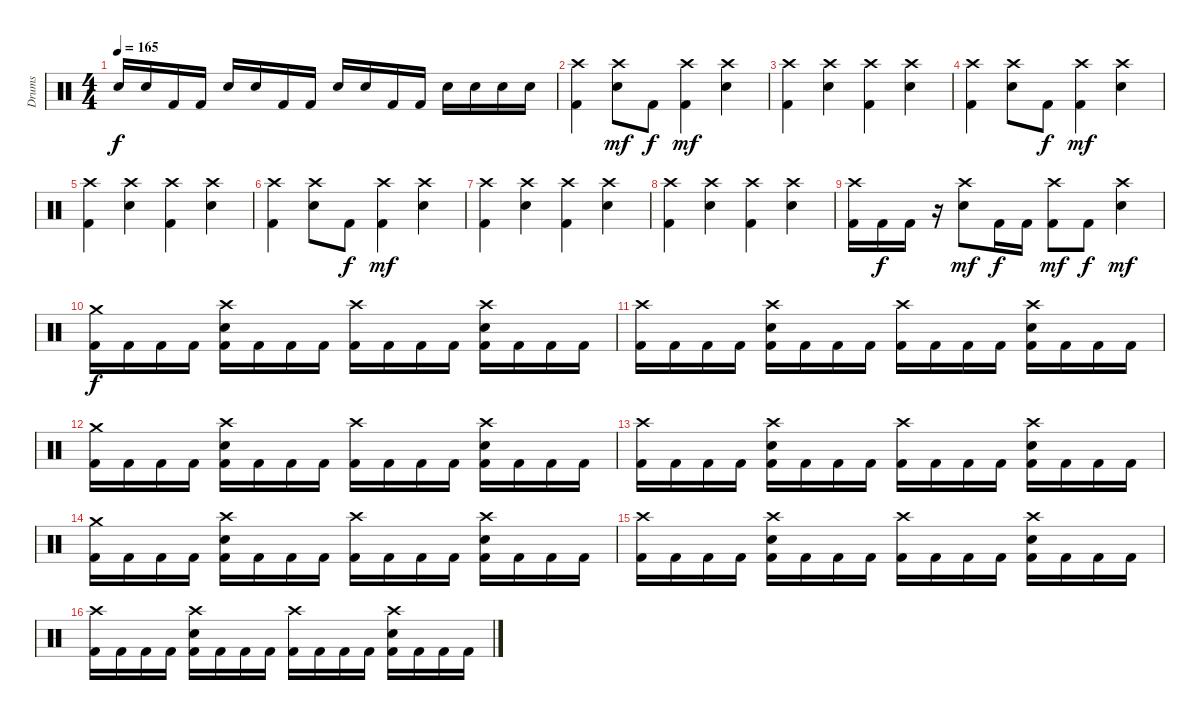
\track ("Drums" "Drums") {instrument percussion}
\staff {score}
\articulation defaults
\ts (4 4)
\tempo 165
\clef neutral
\ks c "Electric Snare (hit)".16{dy f} "Electric Snare (hit)".16 "Kick (hit) 2".16 "Kick (hit) 2".16 "Electric Snare (hit)".16 "Electric Snare (hit)".16 "Kick (hit) 2".16 "Kick (hit) 2".16 "Electric Snare (hit)".16 "Electric Snare (hit)".16 "Kick (hit) 2".16 "Kick (hit) 2".16 "Electric Snare (hit)".16 "Electric Snare (hit)".16 "Electric Snare (hit)".16 "Electric Snare (hit)".16
|
("Crash high (hit)" "Kick (hit) 2").4 ("Crash high (hit)" "Electric Snare (hit)").8{dy mf} "Kick (hit) 2".8{dy f} ("Crash high (hit)" "Kick (hit) 2").4{dy mf} ("Crash high (hit)" "Electric Snare (hit)").4 |
("Crash high (hit)" "Kick (hit) 2").4 ("Crash high (hit)" "Electric Snare (hit)").4 ("Crash high (hit)" "Kick (hit) 2").4 ("Crash high (hit)" "Electric Snare (hit)").4 |
("Crash high (hit)" "Kick (hit) 2").4 ("Crash high (hit)" "Electric Snare (hit)").8 "Kick (hit) 2".8{dy f} ("Crash high (hit)" "Kick (hit) 2").4{dy mf} ("Crash high (hit)" "Electric Snare (hit)").4 |
("Crash high (hit)" "Kick (hit) 2").4 ("Crash high (hit)" "Electric Snare (hit)").4 ("Crash high (hit)" "Kick (hit) 2").4 ("Crash high (hit)" "Electric Snare (hit)").4 |
("Crash high (hit)" "Kick (hit) 2").4 ("Crash high (hit)" "Electric Snare (hit)").8 "Kick (hit) 2".8{dy f} ("Crash high (hit)" "Kick (hit) 2").4{dy mf} ("Crash high (hit)" "Electric Snare (hit)").4 |
("Crash high (hit)" "Kick (hit) 2").4 ("Crash high (hit)" "Electric Snare (hit)").4 ("Crash high (hit)" "Kick (hit) 2").4 ("Crash high (hit)" "Electric Snare (hit)").4 |
("Crash high (hit)" "Kick (hit) 2").4 ("Crash high (hit)" "Electric Snare (hit)").4 ("Crash high (hit)" "Kick (hit) 2").4 ("Crash high (hit)" "Electric Snare (hit)").4 |
("Crash high (hit)" "Kick (hit) 2").16 "Kick (hit) 2".16{dy f} "Kick (hit) 2".16 r.16 ("Crash high (hit)" "Electric Snare (hit)").8{dy mf} "Kick (hit) 2".16{dy f} "Kick (hit) 2".16 ("Crash high (hit)" "Kick (hit) 2").8{dy mf} "Kick (hit) 2".8{dy f} ("Crash high (hit)" "Electric Snare (hit)").4{dy mf} |
("Crash medium (hit)" "Kick (hit) 2").16{dy f} "Kick (hit) 2".16 "Kick (hit) 2".16 "Kick (hit) 2".16 ("Crash high (hit)" "Electric Snare (hit)" "Kick (hit) 2").16 "Kick (hit) 2".16 "Kick (hit) 2".16 "Kick (hit) 2".16 ("Crash high (hit)" "Kick (hit) 2").16 "Kick (hit) 2".16 "Kick (hit) 2".16 "Kick (hit) 2".16 ("Crash high (hit)" "Electric Snare (hit)" "Kick (hit) 2").16 "Kick (hit) 2".16 "Kick (hit) 2".16 "Kick (hit) 2".16 |
("Crash high (hit)" "Kick (hit) 2").16 "Kick (hit) 2".16 "Kick (hit) 2".16 "Kick (hit) 2".16 ("Crash high (hit)" "Electric Snare (hit)" "Kick (hit) 2").16 "Kick (hit) 2".16 "Kick (hit) 2".16 "Kick (hit) 2".16 ("Crash high (hit)" "Kick (hit) 2").16 "Kick (hit) 2".16 "Kick (hit) 2".16 "Kick (hit) 2".16 ("Crash high (hit)" "Electric Snare (hit)" "Kick (hit) 2").16 "Kick (hit) 2".16 "Kick (hit) 2".16 "Kick (hit) 2".16 |
("Crash medium (hit)" "Kick (hit) 2").16 "Kick (hit) 2".16 "Kick (hit) 2".16 "Kick (hit) 2".16 ("Crash high (hit)" "Electric Snare (hit)" "Kick (hit) 2").16 "Kick (hit) 2".16 "Kick (hit) 2".16 "Kick (hit) 2".16 ("Crash high (hit)" "Kick (hit) 2").16 "Kick (hit) 2".16 "Kick (hit) 2".16 "Kick (hit) 2".16 ("Crash high (hit)" "Electric Snare (hit)" "Kick (hit) 2").16 "Kick (hit) 2".16 "Kick (hit) 2".16 "Kick (hit) 2".16 |
("Crash high (hit)" "Kick (hit) 2").16 "Kick (hit) 2".16 "Kick (hit) 2".16 "Kick (hit) 2".16 ("Crash high (hit)" "Electric Snare (hit)" "Kick (hit) 2").16 "Kick (hit) 2".16 "Kick (hit) 2".16 "Kick (hit) 2".16 ("Crash high (hit)" "Kick (hit) 2").16 "Kick (hit) 2".16 "Kick (hit) 2".16 "Kick (hit) 2".16 ("Crash high (hit)" "Electric Snare (hit)" "Kick (hit) 2").16 "Kick (hit) 2".16 "Kick (hit) 2".16 "Kick (hit) 2".16 |
("Crash medium (hit)" "Kick (hit) 2").16 "Kick (hit) 2".16 "Kick (hit) 2".16 "Kick (hit) 2".16 ("Crash high (hit)" "Electric Snare (hit)" "Kick (hit) 2").16 "Kick (hit) 2".16 "Kick (hit) 2".16 "Kick (hit) 2".16 ("Crash high (hit)" "Kick (hit) 2").16 "Kick (hit) 2".16 "Kick (hit) 2".16 "Kick (hit) 2".16 ("Crash high (hit)" "Electric Snare (hit)" "Kick (hit) 2").16 "Kick (hit) 2".16 "Kick (hit) 2".16 "Kick (hit) 2".16 |
("Crash high (hit)" "Kick (hit) 2").16 "Kick (hit) 2".16 "Kick (hit) 2".16 "Kick (hit) 2".16 ("Crash high (hit)" "Electric Snare (hit)" "Kick (hit) 2").16 "Kick (hit) 2".16 "Kick (hit) 2".16 "Kick (hit) 2".16 ("Crash high (hit)" "Kick (hit) 2").16 "Kick (hit) 2".16 "Kick (hit) 2".16 "Kick (hit) 2".16 ("Crash high (hit)" "Electric Snare (hit)" "Kick (hit) 2").16 "Kick (hit) 2".16 "Kick (hit) 2".16 "Kick (hit) 2".16 |
("Crash high (hit)" "Kick (hit) 2").16 "Kick (hit) 2".16 "Kick (hit) 2".16 "Kick (hit) 2".16 ("Crash high (hit)" "Electric Snare (hit)" "Kick (hit) 2").16 "Kick (hit) 2".16 "Kick (hit) 2".16 "Kick (hit) 2".16 ("Crash high (hit)" "Kick (hit) 2").16 "Kick (hit) 2".16 "Kick (hit) 2".16 "Kick (hit) 2".16 ("Crash high (hit)" "Electric Snare (hit)" "Kick (hit) 2").16 "Kick (hit) 2".16 "Kick (hit) 2".16 "Kick (hit) 2".16
